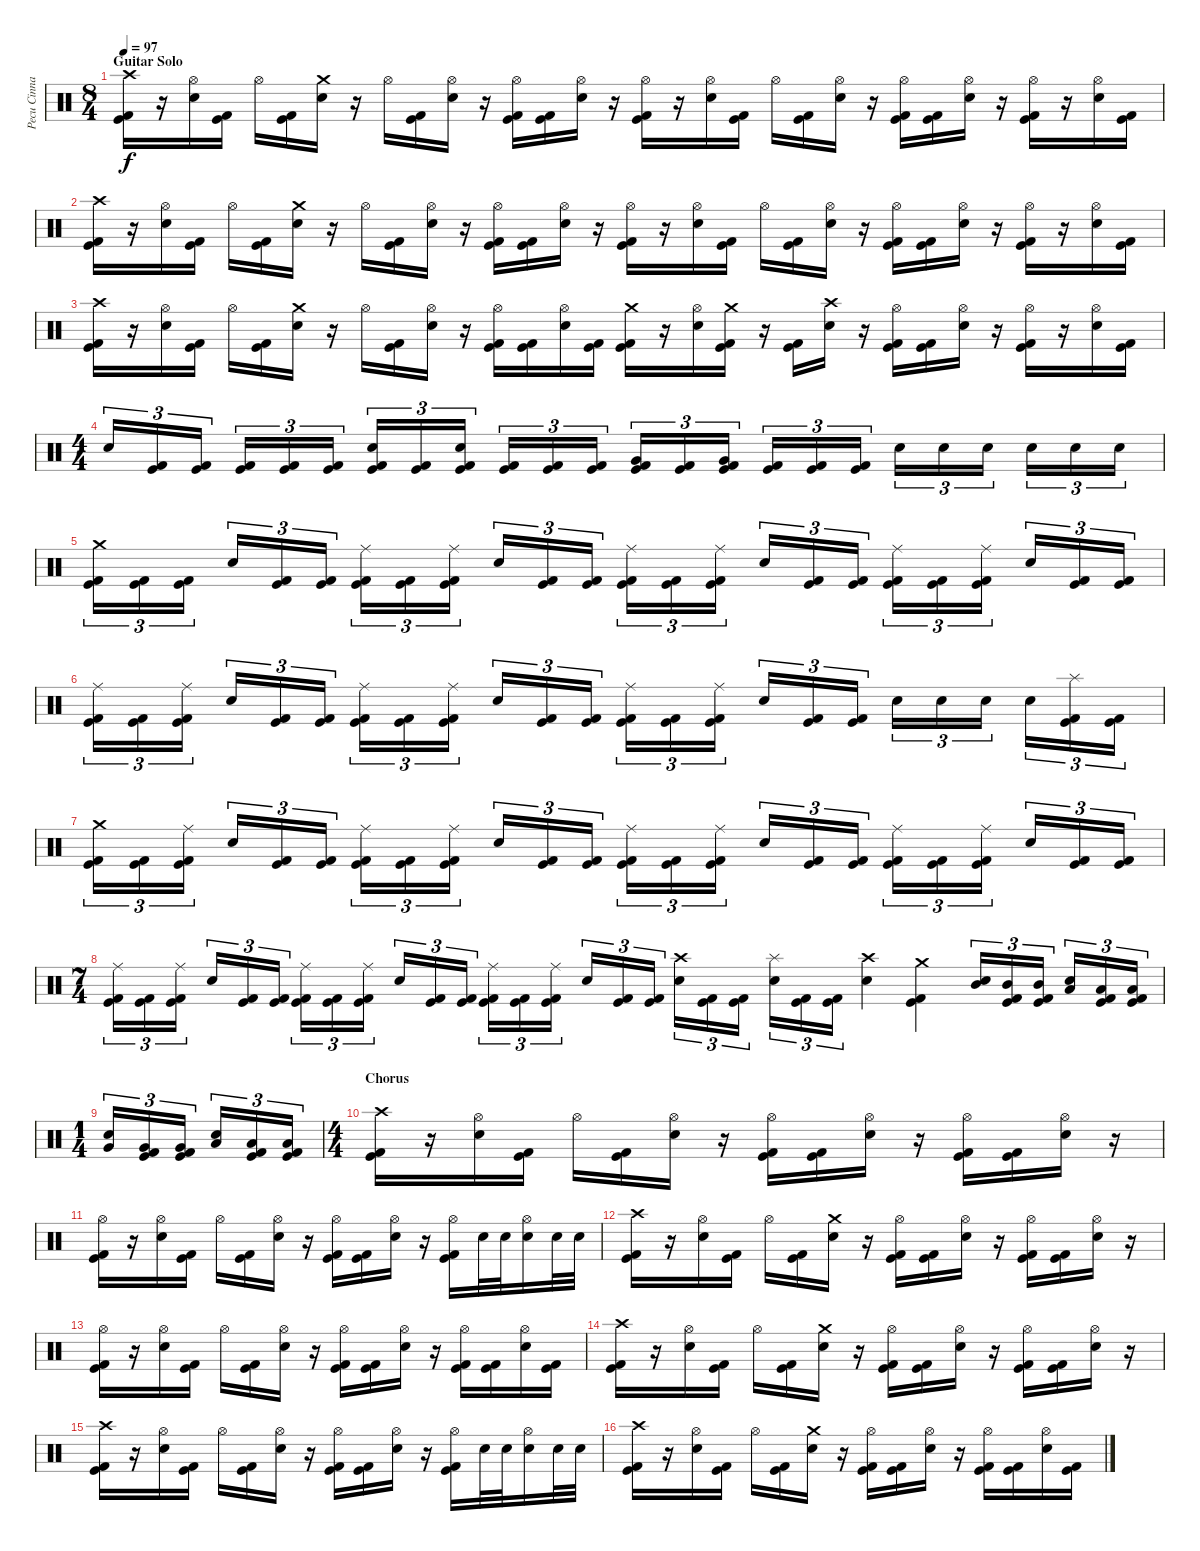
\track ("Pecu Cinnari" "Pecu Cinna") {instrument percussion}
\staff {score}
\articulation defaults
\ts (8 4)
\section ("" "Guitar Solo")
\tempo 97
\clef neutral
\ks c
("Crash high (hit)" "Kick (hit)" "Kick (hit) 2").16{dy f} r.16 ("Hi-Hat (open)" "Electric Snare (hit)").16 ("Kick (hit)" "Kick (hit) 2").16 "Hi-Hat (open)".16 ("Kick (hit)" "Kick (hit) 2").16 ("Crash medium (hit)" "Electric Snare (hit)").16 r.16 "Hi-Hat (open)".16 ("Kick (hit)" "Kick (hit) 2").16 ("Hi-Hat (open)" "Electric Snare (hit)").16 r.16 ("Hi-Hat (open)" "Kick (hit)" "Kick (hit) 2").16 ("Kick (hit)" "Kick (hit) 2").16 ("Hi-Hat (open)" "Electric Snare (hit)").16 r.16 ("Hi-Hat (open)" "Kick (hit)" "Kick (hit) 2").16 r.16 ("Hi-Hat (open)" "Electric Snare (hit)").16 ("Kick (hit)" "Kick (hit) 2").16 "Hi-Hat (open)".16 ("Kick (hit)" "Kick (hit) 2").16 ("Hi-Hat (open)" "Electric Snare (hit)").16 r.16 ("Hi-Hat (open)" "Kick (hit)" "Kick (hit) 2").16 ("Kick (hit)" "Kick (hit) 2").16 ("Hi-Hat (open)" "Electric Snare (hit)").16 r.16 ("Hi-Hat (open)" "Kick (hit)" "Kick (hit) 2").16 r.16 ("Hi-Hat (open)" "Electric Snare (hit)").16 ("Kick (hit)" "Kick (hit) 2").16 |
("Crash high (hit)" "Kick (hit)" "Kick (hit) 2").16 r.16 ("Hi-Hat (open)" "Electric Snare (hit)").16 ("Kick (hit)" "Kick (hit) 2").16 "Hi-Hat (open)".16 ("Kick (hit)" "Kick (hit) 2").16 ("Crash medium (hit)" "Electric Snare (hit)").16 r.16 "Hi-Hat (open)".16 ("Kick (hit)" "Kick (hit) 2").16 ("Hi-Hat (open)" "Electric Snare (hit)").16 r.16 ("Hi-Hat (open)" "Kick (hit)" "Kick (hit) 2").16 ("Kick (hit)" "Kick (hit) 2").16 ("Hi-Hat (open)" "Electric Snare (hit)").16 r.16 ("Hi-Hat (open)" "Kick (hit)" "Kick (hit) 2").16 r.16 ("Hi-Hat (open)" "Electric Snare (hit)").16 ("Kick (hit)" "Kick (hit) 2").16 "Hi-Hat (open)".16 ("Kick (hit)" "Kick (hit) 2").16 ("Hi-Hat (open)" "Electric Snare (hit)").16 r.16 ("Hi-Hat (open)" "Kick (hit)" "Kick (hit) 2").16 ("Kick (hit)" "Kick (hit) 2").16 ("Hi-Hat (open)" "Electric Snare (hit)").16 r.16 ("Hi-Hat (open)" "Kick (hit)" "Kick (hit) 2").16 r.16 ("Hi-Hat (open)" "Electric Snare (hit)").16 ("Kick (hit)" "Kick (hit) 2").16 |
("Crash high (hit)" "Kick (hit)" "Kick (hit) 2").16 r.16 ("Hi-Hat (open)" "Electric Snare (hit)").16 ("Kick (hit)" "Kick (hit) 2").16 "Hi-Hat (open)".16 ("Kick (hit)" "Kick (hit) 2").16 ("Crash medium (hit)" "Electric Snare (hit)").16 r.16 "Hi-Hat (open)".16 ("Kick (hit)" "Kick (hit) 2").16 ("Hi-Hat (open)" "Electric Snare (hit)").16 r.16 ("Hi-Hat (open)" "Kick (hit)" "Kick (hit) 2").16 ("Kick (hit)" "Kick (hit) 2").16 ("Hi-Hat (open)" "Electric Snare (hit)").16 ("Kick (hit)" "Kick (hit) 2").16 ("Crash medium (hit)" "Kick (hit)" "Kick (hit) 2").16 r.16 ("Hi-Hat (open)" "Electric Snare (hit)").16 ("Crash medium (hit)" "Kick (hit)" "Kick (hit) 2").16 r.16 ("Kick (hit)" "Kick (hit) 2").16 ("Crash high (hit)" "Electric Snare (hit)").16 r.16 ("Hi-Hat (open)" "Kick (hit)" "Kick (hit) 2").16 ("Kick (hit)" "Kick (hit) 2").16 ("Hi-Hat (open)" "Electric Snare (hit)").16 r.16 ("Hi-Hat (open)" "Kick (hit)" "Kick (hit) 2").16 r.16 ("Hi-Hat (open)" "Electric Snare (hit)").16 ("Kick (hit)" "Kick (hit) 2").16 |
\ts (4 4)
"Electric Snare (hit)".16{tu (3 2)} ("Kick (hit)" "Kick (hit) 2").16{tu (3 2)} ("Kick (hit)" "Kick (hit) 2").16{tu (3 2)} ("Kick (hit)" "Kick (hit) 2").16{tu (3 2)} ("Kick (hit)" "Kick (hit) 2").16{tu (3 2)} ("Kick (hit)" "Kick (hit) 2").16{tu (3 2)} ("Electric Snare (hit)" "Kick (hit)" "Kick (hit) 2").16{tu (3 2)} ("Kick (hit)" "Kick (hit) 2").16{tu (3 2)} ("Electric Snare (hit)" "Kick (hit)" "Kick (hit) 2").16{tu (3 2)} ("Kick (hit)" "Kick (hit) 2").16{tu (3 2)} ("Kick (hit)" "Kick (hit) 2").16{tu (3 2)} ("Kick (hit)" "Kick (hit) 2").16{tu (3 2)} ("Very Low Tom (hit)" "Kick (hit)" "Kick (hit) 2").16{tu (3 2)} ("Kick (hit)" "Kick (hit) 2").16{tu (3 2)} ("Very Low Tom (hit)" "Kick (hit)" "Kick (hit) 2").16{tu (3 2)} ("Kick (hit)" "Kick (hit) 2").16{tu (3 2)} ("Kick (hit)" "Kick (hit) 2").16{tu (3 2)} ("Kick (hit)" "Kick (hit) 2").16{tu (3 2)} "Electric Snare (hit)".16{tu (3 2)} "Electric Snare (hit)".16{tu (3 2)} "Electric Snare (hit)".16{tu (3 2)} "Electric Snare (hit)".16{tu (3 2)} "Electric Snare (hit)".16{tu (3 2)} "Electric Snare (hit)".16{tu (3 2)} |
("Crash medium (hit)" "Kick (hit)" "Kick (hit) 2").16{tu (3 2)} ("Kick (hit)" "Kick (hit) 2").16{tu (3 2)} ("Kick (hit)" "Kick (hit) 2").16{tu (3 2)} "Electric Snare (hit)".16{tu (3 2)} ("Kick (hit)" "Kick (hit) 2").16{tu (3 2)} ("Kick (hit)" "Kick (hit) 2").16{tu (3 2)} ("Ride (middle)" "Kick (hit)" "Kick (hit) 2").16{tu (3 2)} ("Kick (hit)" "Kick (hit) 2").16{tu (3 2)} ("Ride (middle)" "Kick (hit)" "Kick (hit) 2").16{tu (3 2)} "Electric Snare (hit)".16{tu (3 2)} ("Kick (hit)" "Kick (hit) 2").16{tu (3 2)} ("Kick (hit)" "Kick (hit) 2").16{tu (3 2)} ("Ride (middle)" "Kick (hit)" "Kick (hit) 2").16{tu (3 2)} ("Kick (hit)" "Kick (hit) 2").16{tu (3 2)} ("Ride (middle)" "Kick (hit)" "Kick (hit) 2").16{tu (3 2)} "Electric Snare (hit)".16{tu (3 2)} ("Kick (hit)" "Kick (hit) 2").16{tu (3 2)} ("Kick (hit)" "Kick (hit) 2").16{tu (3 2)} ("Ride (middle)" "Kick (hit)" "Kick (hit) 2").16{tu (3 2)} ("Kick (hit)" "Kick (hit) 2").16{tu (3 2)} ("Ride (middle)" "Kick (hit)" "Kick (hit) 2").16{tu (3 2)} "Electric Snare (hit)".16{tu (3 2)} ("Kick (hit)" "Kick (hit) 2").16{tu (3 2)} ("Kick (hit)" "Kick (hit) 2").16{tu (3 2)} |
("Ride (middle)" "Kick (hit)" "Kick (hit) 2").16{tu (3 2)} ("Kick (hit)" "Kick (hit) 2").16{tu (3 2)} ("Ride (middle)" "Kick (hit)" "Kick (hit) 2").16{tu (3 2)} "Electric Snare (hit)".16{tu (3 2)} ("Kick (hit)" "Kick (hit) 2").16{tu (3 2)} ("Kick (hit)" "Kick (hit) 2").16{tu (3 2)} ("Ride (middle)" "Kick (hit)" "Kick (hit) 2").16{tu (3 2)} ("Kick (hit)" "Kick (hit) 2").16{tu (3 2)} ("Ride (middle)" "Kick (hit)" "Kick (hit) 2").16{tu (3 2)} "Electric Snare (hit)".16{tu (3 2)} ("Kick (hit)" "Kick (hit) 2").16{tu (3 2)} ("Kick (hit)" "Kick (hit) 2").16{tu (3 2)} ("Ride (middle)" "Kick (hit)" "Kick (hit) 2").16{tu (3 2)} ("Kick (hit)" "Kick (hit) 2").16{tu (3 2)} ("Ride (middle)" "Kick (hit)" "Kick (hit) 2").16{tu (3 2)} "Electric Snare (hit)".16{tu (3 2)} ("Kick (hit)" "Kick (hit) 2").16{tu (3 2)} ("Kick (hit)" "Kick (hit) 2").16{tu (3 2)} "Electric Snare (hit)".16{tu (3 2)} "Electric Snare (hit)".16{tu (3 2)} "Electric Snare (hit)".16{tu (3 2)} "Electric Snare (hit)".16{tu (3 2)} ("Splash (hit)" "Kick (hit)" "Kick (hit) 2").16{tu (3 2)} ("Kick (hit)" "Kick (hit) 2").16{tu (3 2)} |
("Crash medium (hit)" "Kick (hit)" "Kick (hit) 2").16{tu (3 2)} ("Kick (hit)" "Kick (hit) 2").16{tu (3 2)} ("Ride (middle)" "Kick (hit)" "Kick (hit) 2").16{tu (3 2)} "Electric Snare (hit)".16{tu (3 2)} ("Kick (hit)" "Kick (hit) 2").16{tu (3 2)} ("Kick (hit)" "Kick (hit) 2").16{tu (3 2)} ("Ride (middle)" "Kick (hit)" "Kick (hit) 2").16{tu (3 2)} ("Kick (hit)" "Kick (hit) 2").16{tu (3 2)} ("Ride (middle)" "Kick (hit)" "Kick (hit) 2").16{tu (3 2)} "Electric Snare (hit)".16{tu (3 2)} ("Kick (hit)" "Kick (hit) 2").16{tu (3 2)} ("Kick (hit)" "Kick (hit) 2").16{tu (3 2)} ("Ride (middle)" "Kick (hit)" "Kick (hit) 2").16{tu (3 2)} ("Kick (hit)" "Kick (hit) 2").16{tu (3 2)} ("Ride (middle)" "Kick (hit)" "Kick (hit) 2").16{tu (3 2)} "Electric Snare (hit)".16{tu (3 2)} ("Kick (hit)" "Kick (hit) 2").16{tu (3 2)} ("Kick (hit)" "Kick (hit) 2").16{tu (3 2)} ("Ride (middle)" "Kick (hit)" "Kick (hit) 2").16{tu (3 2)} ("Kick (hit)" "Kick (hit) 2").16{tu (3 2)} ("Ride (middle)" "Kick (hit)" "Kick (hit) 2").16{tu (3 2)} "Electric Snare (hit)".16{tu (3 2)} ("Kick (hit)" "Kick (hit) 2").16{tu (3 2)} ("Kick (hit)" "Kick (hit) 2").16{tu (3 2)} |
\ts (7 4)
("Ride (middle)" "Kick (hit)" "Kick (hit) 2").16{tu (3 2)} ("Kick (hit)" "Kick (hit) 2").16{tu (3 2)} ("Ride (middle)" "Kick (hit)" "Kick (hit) 2").16{tu (3 2)} "Electric Snare (hit)".16{tu (3 2)} ("Kick (hit)" "Kick (hit) 2").16{tu (3 2)} ("Kick (hit)" "Kick (hit) 2").16{tu (3 2)} ("Ride (middle)" "Kick (hit)" "Kick (hit) 2").16{tu (3 2)} ("Kick (hit)" "Kick (hit) 2").16{tu (3 2)} ("Ride (middle)" "Kick (hit)" "Kick (hit) 2").16{tu (3 2)} "Electric Snare (hit)".16{tu (3 2)} ("Kick (hit)" "Kick (hit) 2").16{tu (3 2)} ("Kick (hit)" "Kick (hit) 2").16{tu (3 2)} ("Ride (middle)" "Kick (hit)" "Kick (hit) 2").16{tu (3 2)} ("Kick (hit)" "Kick (hit) 2").16{tu (3 2)} ("Ride (middle)" "Kick (hit)" "Kick (hit) 2").16{tu (3 2)} "Electric Snare (hit)".16{tu (3 2)} ("Kick (hit)" "Kick (hit) 2").16{tu (3 2)} ("Kick (hit)" "Kick (hit) 2").16{tu (3 2)} ("Crash high (hit)" "Electric Snare (hit)").16{tu (3 2)} ("Kick (hit)" "Kick (hit) 2").16{tu (3 2)} ("Kick (hit)" "Kick (hit) 2").16{tu (3 2)} ("Splash (hit)" "Electric Snare (hit)").16{tu (3 2)} ("Kick (hit)" "Kick (hit) 2").16{tu (3 2)} ("Kick (hit)" "Kick (hit) 2").16{tu (3 2)} ("Crash high (hit)" "Electric Snare (hit)").4 ("Crash medium (hit)" "Kick (hit)" "Kick (hit) 2").4 ("Mid Tom (hit)" "Electric Snare (hit)").16{tu (3 2)} ("Mid Tom (hit)" "Kick (hit)" "Kick (hit) 2").16{tu (3 2)} ("Mid Tom (hit)" "Kick (hit)" "Kick (hit) 2").16{tu (3 2)} ("Low Tom (hit)" "Electric Snare (hit)").16{tu (3 2)} ("Low Tom (hit)" "Kick (hit)" "Kick (hit) 2").16{tu (3 2)} ("Low Tom (hit)" "Kick (hit)" "Kick (hit) 2").16{tu (3 2)} |
\ts (1 4)
("Very Low Tom (hit)" "Electric Snare (hit)").16{tu (3 2)} ("Very Low Tom (hit)" "Kick (hit)" "Kick (hit) 2").16{tu (3 2)} ("Very Low Tom (hit)" "Kick (hit)" "Kick (hit) 2").16{tu (3 2)} ("Low Floor Tom (hit)" "Electric Snare (hit)").16{tu (3 2)} ("Low Floor Tom (hit)" "Kick (hit)" "Kick (hit) 2").16{tu (3 2)} ("Low Floor Tom (hit)" "Kick (hit)" "Kick (hit) 2").16{tu (3 2)} |
\ts (4 4)
\section ("" "Chorus")
("Crash high (hit)" "Kick (hit)" "Kick (hit) 2").16 r.16 ("Hi-Hat (open)" "Electric Snare (hit)").16 ("Kick (hit)" "Kick (hit) 2").16 "Hi-Hat (open)".16 ("Kick (hit)" "Kick (hit) 2").16 ("Hi-Hat (open)" "Electric Snare (hit)").16 r.16 ("Hi-Hat (open)" "Kick (hit)" "Kick (hit) 2").16 ("Kick (hit)" "Kick (hit) 2").16 ("Hi-Hat (open)" "Electric Snare (hit)").16 r.16 ("Hi-Hat (open)" "Kick (hit)" "Kick (hit) 2").16 ("Kick (hit)" "Kick (hit) 2").16 ("Hi-Hat (open)" "Electric Snare (hit)").16 r.16 |
("Hi-Hat (open)" "Kick (hit)" "Kick (hit) 2").16 r.16 ("Hi-Hat (open)" "Electric Snare (hit)").16 ("Kick (hit)" "Kick (hit) 2").16 "Hi-Hat (open)".16 ("Kick (hit)" "Kick (hit) 2").16 ("Hi-Hat (open)" "Electric Snare (hit)").16 r.16 ("Hi-Hat (open)" "Kick (hit)" "Kick (hit) 2").16 ("Kick (hit)" "Kick (hit) 2").16 ("Hi-Hat (open)" "Electric Snare (hit)").16 r.16 ("Hi-Hat (open)" "Kick (hit)" "Kick (hit) 2").16 "Electric Snare (hit)".32 "Electric Snare (hit)".32 ("Hi-Hat (open)" "Electric Snare (hit)").16 "Electric Snare (hit)".32 "Electric Snare (hit)".32 |
("Crash high (hit)" "Kick (hit)" "Kick (hit) 2").16 r.16 ("Hi-Hat (open)" "Electric Snare (hit)").16 ("Kick (hit)" "Kick (hit) 2").16 "Hi-Hat (open)".16 ("Kick (hit)" "Kick (hit) 2").16 ("Crash medium (hit)" "Electric Snare (hit)").16 r.16 ("Hi-Hat (open)" "Kick (hit)" "Kick (hit) 2").16 ("Kick (hit)" "Kick (hit) 2").16 ("Hi-Hat (open)" "Electric Snare (hit)").16 r.16 ("Hi-Hat (open)" "Kick (hit)" "Kick (hit) 2").16 ("Kick (hit)" "Kick (hit) 2").16 ("Hi-Hat (open)" "Electric Snare (hit)").16 r.16 |
("Hi-Hat (open)" "Kick (hit)" "Kick (hit) 2").16 r.16 ("Hi-Hat (open)" "Electric Snare (hit)").16 ("Kick (hit)" "Kick (hit) 2").16 "Hi-Hat (open)".16 ("Kick (hit)" "Kick (hit) 2").16 ("Hi-Hat (open)" "Electric Snare (hit)").16 r.16 ("Hi-Hat (open)" "Kick (hit)" "Kick (hit) 2").16 ("Kick (hit)" "Kick (hit) 2").16 ("Hi-Hat (open)" "Electric Snare (hit)").16 r.16 ("Hi-Hat (open)" "Kick (hit)" "Kick (hit) 2").16 ("Kick (hit)" "Kick (hit) 2").16 ("Hi-Hat (open)" "Electric Snare (hit)").16 ("Kick (hit)" "Kick (hit) 2").16 |
("Crash high (hit)" "Kick (hit)" "Kick (hit) 2").16 r.16 ("Hi-Hat (open)" "Electric Snare (hit)").16 ("Kick (hit)" "Kick (hit) 2").16 "Hi-Hat (open)".16 ("Kick (hit)" "Kick (hit) 2").16 ("Crash medium (hit)" "Electric Snare (hit)").16 r.16 ("Hi-Hat (open)" "Kick (hit)" "Kick (hit) 2").16 ("Kick (hit)" "Kick (hit) 2").16 ("Hi-Hat (open)" "Electric Snare (hit)").16 r.16 ("Hi-Hat (open)" "Kick (hit)" "Kick (hit) 2").16 ("Kick (hit)" "Kick (hit) 2").16 ("Hi-Hat (open)" "Electric Snare (hit)").16 r.16 |
("Crash high (hit)" "Kick (hit)" "Kick (hit) 2").16 r.16 ("Hi-Hat (open)" "Electric Snare (hit)").16 ("Kick (hit)" "Kick (hit) 2").16 "Hi-Hat (open)".16 ("Kick (hit)" "Kick (hit) 2").16 ("Hi-Hat (open)" "Electric Snare (hit)").16 r.16 ("Hi-Hat (open)" "Kick (hit)" "Kick (hit) 2").16 ("Kick (hit)" "Kick (hit) 2").16 ("Hi-Hat (open)" "Electric Snare (hit)").16 r.16 ("Hi-Hat (open)" "Kick (hit)" "Kick (hit) 2").16 "Electric Snare (hit)".32 "Electric Snare (hit)".32 ("Hi-Hat (open)" "Electric Snare (hit)").16 "Electric Snare (hit)".32 "Electric Snare (hit)".32 |
("Crash high (hit)" "Kick (hit)" "Kick (hit) 2").16 r.16 ("Hi-Hat (open)" "Electric Snare (hit)").16 ("Kick (hit)" "Kick (hit) 2").16 "Hi-Hat (open)".16 ("Kick (hit)" "Kick (hit) 2").16 ("Crash medium (hit)" "Electric Snare (hit)").16 r.16 ("Hi-Hat (open)" "Kick (hit)" "Kick (hit) 2").16 ("Kick (hit)" "Kick (hit) 2").16 ("Hi-Hat (open)" "Electric Snare (hit)").16 r.16 ("Hi-Hat (open)" "Kick (hit)" "Kick (hit) 2").16 ("Kick (hit)" "Kick (hit) 2").16 ("Hi-Hat (open)" "Electric Snare (hit)").16 ("Kick (hit)" "Kick (hit) 2").16
